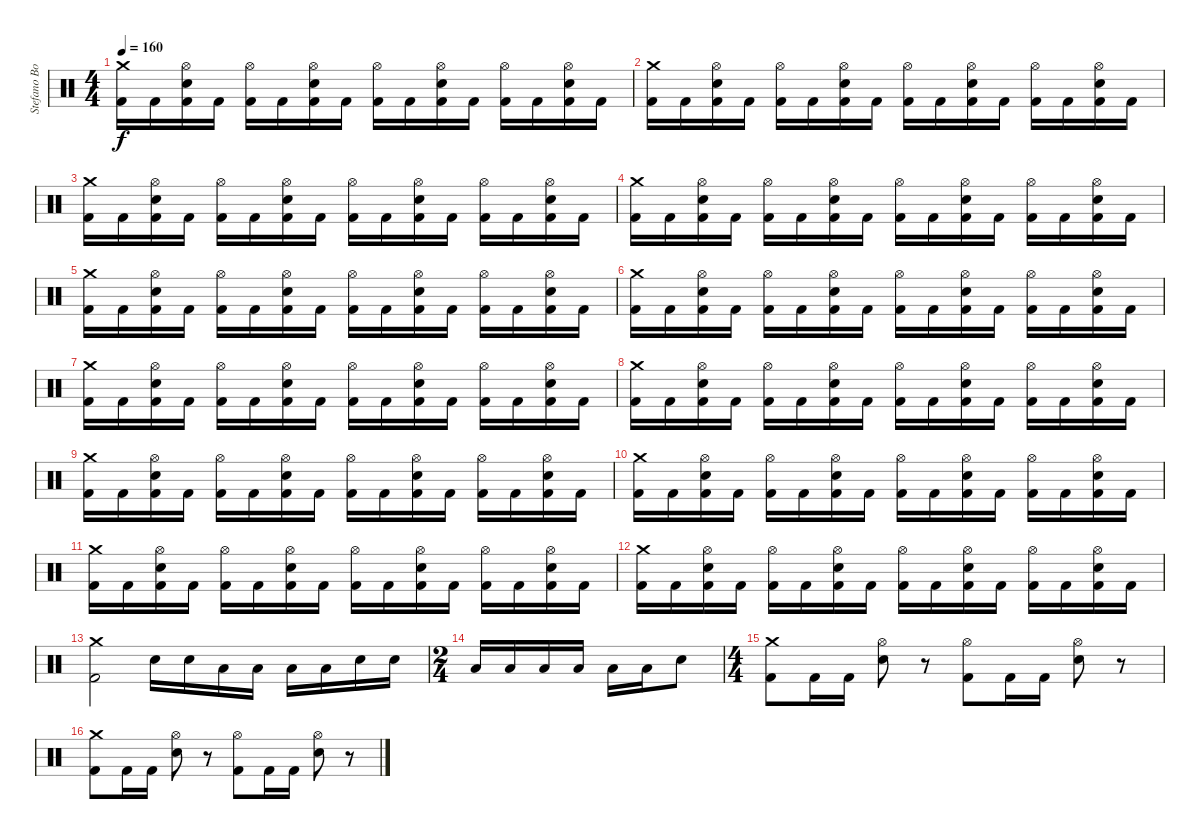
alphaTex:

\track ("Stefano Bonini" "Stefano Bo") {instrument percussion}
\staff {score}
\articulation defaults
\ts (4 4)
\tempo 160
\clef neutral
\ks c
("Crash medium (hit)" "Kick (hit) 2").16{dy f} "Kick (hit) 2".16 ("Hi-Hat (open)" "Snare (hit) 2" "Kick (hit) 2").16 "Kick (hit) 2".16 ("Hi-Hat (open)" "Kick (hit) 2").16 "Kick (hit) 2".16 ("Hi-Hat (open)" "Snare (hit) 2" "Kick (hit) 2").16 "Kick (hit) 2".16 ("Hi-Hat (open)" "Kick (hit) 2").16 "Kick (hit) 2".16 ("Hi-Hat (open)" "Snare (hit) 2" "Kick (hit) 2").16 "Kick (hit) 2".16 ("Hi-Hat (open)" "Kick (hit) 2").16 "Kick (hit) 2".16 ("Hi-Hat (open)" "Snare (hit) 2" "Kick (hit) 2").16 "Kick (hit) 2".16 |
("Crash medium (hit)" "Kick (hit) 2").16 "Kick (hit) 2".16 ("Hi-Hat (open)" "Snare (hit) 2" "Kick (hit) 2").16 "Kick (hit) 2".16 ("Hi-Hat (open)" "Kick (hit) 2").16 "Kick (hit) 2".16 ("Hi-Hat (open)" "Snare (hit) 2" "Kick (hit) 2").16 "Kick (hit) 2".16 ("Hi-Hat (open)" "Kick (hit) 2").16 "Kick (hit) 2".16 ("Hi-Hat (open)" "Snare (hit) 2" "Kick (hit) 2").16 "Kick (hit) 2".16 ("Hi-Hat (open)" "Kick (hit) 2").16 "Kick (hit) 2".16 ("Hi-Hat (open)" "Snare (hit) 2" "Kick (hit) 2").16 "Kick (hit) 2".16 |
("Crash medium (hit)" "Kick (hit) 2").16 "Kick (hit) 2".16 ("Hi-Hat (open)" "Snare (hit) 2" "Kick (hit) 2").16 "Kick (hit) 2".16 ("Hi-Hat (open)" "Kick (hit) 2").16 "Kick (hit) 2".16 ("Hi-Hat (open)" "Snare (hit) 2" "Kick (hit) 2").16 "Kick (hit) 2".16 ("Hi-Hat (open)" "Kick (hit) 2").16 "Kick (hit) 2".16 ("Hi-Hat (open)" "Snare (hit) 2" "Kick (hit) 2").16 "Kick (hit) 2".16 ("Hi-Hat (open)" "Kick (hit) 2").16 "Kick (hit) 2".16 ("Hi-Hat (open)" "Snare (hit) 2" "Kick (hit) 2").16 "Kick (hit) 2".16 |
("Crash medium (hit)" "Kick (hit) 2").16 "Kick (hit) 2".16 ("Hi-Hat (open)" "Snare (hit) 2" "Kick (hit) 2").16 "Kick (hit) 2".16 ("Hi-Hat (open)" "Kick (hit) 2").16 "Kick (hit) 2".16 ("Hi-Hat (open)" "Snare (hit) 2" "Kick (hit) 2").16 "Kick (hit) 2".16 ("Hi-Hat (open)" "Kick (hit) 2").16 "Kick (hit) 2".16 ("Hi-Hat (open)" "Snare (hit) 2" "Kick (hit) 2").16 "Kick (hit) 2".16 ("Hi-Hat (open)" "Kick (hit) 2").16 "Kick (hit) 2".16 ("Hi-Hat (open)" "Snare (hit) 2" "Kick (hit) 2").16 "Kick (hit) 2".16 |
("Crash medium (hit)" "Kick (hit) 2").16 "Kick (hit) 2".16 ("Hi-Hat (open)" "Snare (hit) 2" "Kick (hit) 2").16 "Kick (hit) 2".16 ("Hi-Hat (open)" "Kick (hit) 2").16 "Kick (hit) 2".16 ("Hi-Hat (open)" "Snare (hit) 2" "Kick (hit) 2").16 "Kick (hit) 2".16 ("Hi-Hat (open)" "Kick (hit) 2").16 "Kick (hit) 2".16 ("Hi-Hat (open)" "Snare (hit) 2" "Kick (hit) 2").16 "Kick (hit) 2".16 ("Hi-Hat (open)" "Kick (hit) 2").16 "Kick (hit) 2".16 ("Hi-Hat (open)" "Snare (hit) 2" "Kick (hit) 2").16 "Kick (hit) 2".16 |
("Crash medium (hit)" "Kick (hit) 2").16 "Kick (hit) 2".16 ("Hi-Hat (open)" "Snare (hit) 2" "Kick (hit) 2").16 "Kick (hit) 2".16 ("Hi-Hat (open)" "Kick (hit) 2").16 "Kick (hit) 2".16 ("Hi-Hat (open)" "Snare (hit) 2" "Kick (hit) 2").16 "Kick (hit) 2".16 ("Hi-Hat (open)" "Kick (hit) 2").16 "Kick (hit) 2".16 ("Hi-Hat (open)" "Snare (hit) 2" "Kick (hit) 2").16 "Kick (hit) 2".16 ("Hi-Hat (open)" "Kick (hit) 2").16 "Kick (hit) 2".16 ("Hi-Hat (open)" "Snare (hit) 2" "Kick (hit) 2").16 "Kick (hit) 2".16 |
("Crash medium (hit)" "Kick (hit) 2").16 "Kick (hit) 2".16 ("Hi-Hat (open)" "Snare (hit) 2" "Kick (hit) 2").16 "Kick (hit) 2".16 ("Hi-Hat (open)" "Kick (hit) 2").16 "Kick (hit) 2".16 ("Hi-Hat (open)" "Snare (hit) 2" "Kick (hit) 2").16 "Kick (hit) 2".16 ("Hi-Hat (open)" "Kick (hit) 2").16 "Kick (hit) 2".16 ("Hi-Hat (open)" "Snare (hit) 2" "Kick (hit) 2").16 "Kick (hit) 2".16 ("Hi-Hat (open)" "Kick (hit) 2").16 "Kick (hit) 2".16 ("Hi-Hat (open)" "Snare (hit) 2" "Kick (hit) 2").16 "Kick (hit) 2".16 |
("Crash medium (hit)" "Kick (hit) 2").16 "Kick (hit) 2".16 ("Hi-Hat (open)" "Snare (hit) 2" "Kick (hit) 2").16 "Kick (hit) 2".16 ("Hi-Hat (open)" "Kick (hit) 2").16 "Kick (hit) 2".16 ("Hi-Hat (open)" "Snare (hit) 2" "Kick (hit) 2").16 "Kick (hit) 2".16 ("Hi-Hat (open)" "Kick (hit) 2").16 "Kick (hit) 2".16 ("Hi-Hat (open)" "Snare (hit) 2" "Kick (hit) 2").16 "Kick (hit) 2".16 ("Hi-Hat (open)" "Kick (hit) 2").16 "Kick (hit) 2".16 ("Hi-Hat (open)" "Snare (hit) 2" "Kick (hit) 2").16 "Kick (hit) 2".16 |
("Crash medium (hit)" "Kick (hit) 2").16 "Kick (hit) 2".16 ("Hi-Hat (open)" "Snare (hit) 2" "Kick (hit) 2").16 "Kick (hit) 2".16 ("Hi-Hat (open)" "Kick (hit) 2").16 "Kick (hit) 2".16 ("Hi-Hat (open)" "Snare (hit) 2" "Kick (hit) 2").16 "Kick (hit) 2".16 ("Hi-Hat (open)" "Kick (hit) 2").16 "Kick (hit) 2".16 ("Hi-Hat (open)" "Snare (hit) 2" "Kick (hit) 2").16 "Kick (hit) 2".16 ("Hi-Hat (open)" "Kick (hit) 2").16 "Kick (hit) 2".16 ("Hi-Hat (open)" "Snare (hit) 2" "Kick (hit) 2").16 "Kick (hit) 2".16 |
("Crash medium (hit)" "Kick (hit) 2").16 "Kick (hit) 2".16 ("Hi-Hat (open)" "Snare (hit) 2" "Kick (hit) 2").16 "Kick (hit) 2".16 ("Hi-Hat (open)" "Kick (hit) 2").16 "Kick (hit) 2".16 ("Hi-Hat (open)" "Snare (hit) 2" "Kick (hit) 2").16 "Kick (hit) 2".16 ("Hi-Hat (open)" "Kick (hit) 2").16 "Kick (hit) 2".16 ("Hi-Hat (open)" "Snare (hit) 2" "Kick (hit) 2").16 "Kick (hit) 2".16 ("Hi-Hat (open)" "Kick (hit) 2").16 "Kick (hit) 2".16 ("Hi-Hat (open)" "Snare (hit) 2" "Kick (hit) 2").16 "Kick (hit) 2".16 |
("Crash medium (hit)" "Kick (hit) 2").16 "Kick (hit) 2".16 ("Hi-Hat (open)" "Snare (hit) 2" "Kick (hit) 2").16 "Kick (hit) 2".16 ("Hi-Hat (open)" "Kick (hit) 2").16 "Kick (hit) 2".16 ("Hi-Hat (open)" "Snare (hit) 2" "Kick (hit) 2").16 "Kick (hit) 2".16 ("Hi-Hat (open)" "Kick (hit) 2").16 "Kick (hit) 2".16 ("Hi-Hat (open)" "Snare (hit) 2" "Kick (hit) 2").16 "Kick (hit) 2".16 ("Hi-Hat (open)" "Kick (hit) 2").16 "Kick (hit) 2".16 ("Hi-Hat (open)" "Snare (hit) 2" "Kick (hit) 2").16 "Kick (hit) 2".16 |
("Crash medium (hit)" "Kick (hit) 2").16 "Kick (hit) 2".16 ("Hi-Hat (open)" "Snare (hit) 2" "Kick (hit) 2").16 "Kick (hit) 2".16 ("Hi-Hat (open)" "Kick (hit) 2").16 "Kick (hit) 2".16 ("Hi-Hat (open)" "Snare (hit) 2" "Kick (hit) 2").16 "Kick (hit) 2".16 ("Hi-Hat (open)" "Kick (hit) 2").16 "Kick (hit) 2".16 ("Hi-Hat (open)" "Snare (hit) 2" "Kick (hit) 2").16 "Kick (hit) 2".16 ("Hi-Hat (open)" "Kick (hit) 2").16 "Kick (hit) 2".16 ("Hi-Hat (open)" "Snare (hit) 2" "Kick (hit) 2").16 "Kick (hit) 2".16 |
("Crash medium (hit)" "Kick (hit) 2").2 "Snare (hit) 2".16 "Snare (hit) 2".16 "Low Tom (hit)".16 "Low Tom (hit)".16 "Low Tom (hit)".16 "Low Tom (hit)".16 "Snare (hit) 2".16 "Snare (hit) 2".16 |
\ts (2 4)
"Low Tom (hit)".16 "Low Tom (hit)".16 "Low Tom (hit)".16 "Low Tom (hit)".16 "Low Tom (hit)".16 "Low Tom (hit)".16 "Snare (hit) 2".8 |
\ts (4 4)
("Crash medium (hit)" "Kick (hit) 2").8 "Kick (hit) 2".16 "Kick (hit) 2".16 ("Hi-Hat (open)" "Snare (hit) 2").8 r.8 ("Hi-Hat (open)" "Kick (hit) 2").8 "Kick (hit) 2".16 "Kick (hit) 2".16 ("Hi-Hat (open)" "Snare (hit) 2").8 r.8 |
("Crash medium (hit)" "Kick (hit) 2").8 "Kick (hit) 2".16 "Kick (hit) 2".16 ("Hi-Hat (open)" "Snare (hit) 2").8 r.8 ("Hi-Hat (open)" "Kick (hit) 2").8 "Kick (hit) 2".16 "Kick (hit) 2".16 ("Hi-Hat (open)" "Snare (hit) 2").8 r.8
